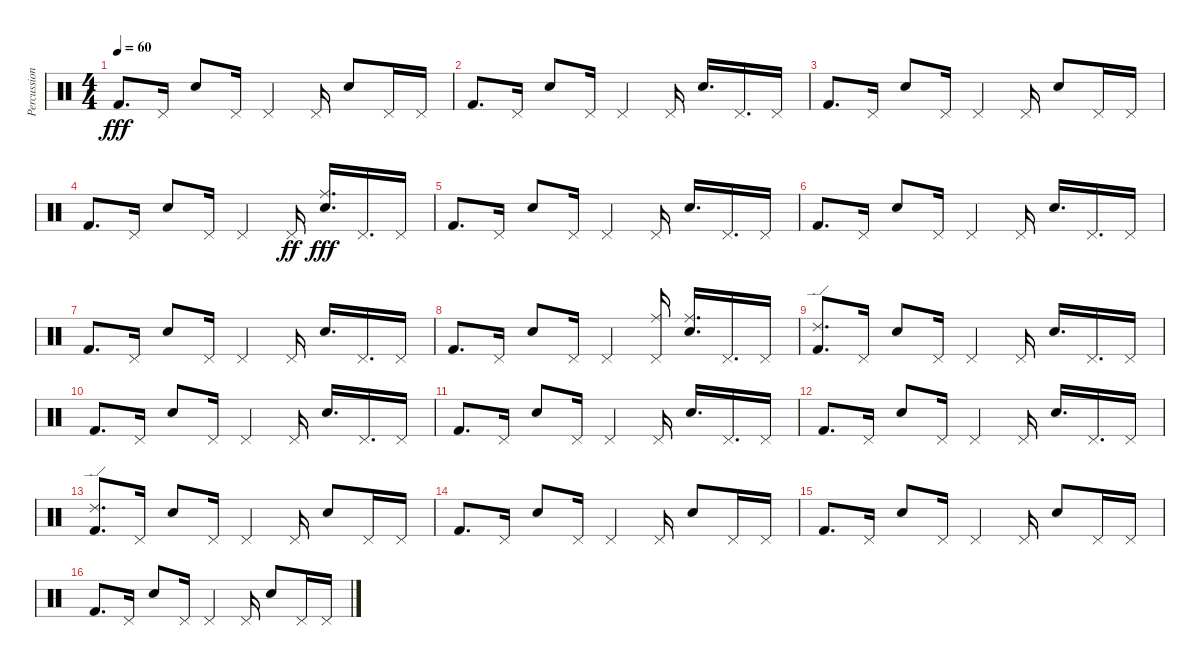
\track ("Percussion" "Percussion") {instrument percussion}
\staff {score}
\articulation defaults
\ts (4 4)
\tempo 60
\clef neutral
\ks c "Kick (hit) 2".8{d dy fff} "Pedal Hi-Hat (hit)".16 "Snare (hit) 2".8 "Pedal Hi-Hat (hit)".16 "Pedal Hi-Hat (hit)".4 "Pedal Hi-Hat (hit)".16 "Snare (hit) 2".8 "Pedal Hi-Hat (hit)".16 "Pedal Hi-Hat (hit)".16
|
"Kick (hit) 2".8{d} "Pedal Hi-Hat (hit)".16 "Snare (hit) 2".8 "Pedal Hi-Hat (hit)".16 "Pedal Hi-Hat (hit)".4 "Pedal Hi-Hat (hit)".16 "Snare (hit) 2".16{d} "Pedal Hi-Hat (hit)".16{d} "Pedal Hi-Hat (hit)".16 |
"Kick (hit) 2".8{d} "Pedal Hi-Hat (hit)".16 "Snare (hit) 2".8 "Pedal Hi-Hat (hit)".16 "Pedal Hi-Hat (hit)".4 "Pedal Hi-Hat (hit)".16 "Snare (hit) 2".8 "Pedal Hi-Hat (hit)".16 "Pedal Hi-Hat (hit)".16 |
"Kick (hit) 2".8{d} "Pedal Hi-Hat (hit)".16 "Snare (hit) 2".8 "Pedal Hi-Hat (hit)".16 "Pedal Hi-Hat (hit)".4 "Pedal Hi-Hat (hit)".16{dy ff} ("Ride (middle)" "Snare (hit) 2").16{d dy fff} "Pedal Hi-Hat (hit)".16{d} "Pedal Hi-Hat (hit)".16 |
"Kick (hit) 2".8{d} "Pedal Hi-Hat (hit)".16 "Snare (hit) 2".8 "Pedal Hi-Hat (hit)".16 "Pedal Hi-Hat (hit)".4 "Pedal Hi-Hat (hit)".16 "Snare (hit) 2".16{d} "Pedal Hi-Hat (hit)".16{d} "Pedal Hi-Hat (hit)".16 |
"Kick (hit) 2".8{d} "Pedal Hi-Hat (hit)".16 "Snare (hit) 2".8 "Pedal Hi-Hat (hit)".16 "Pedal Hi-Hat (hit)".4 "Pedal Hi-Hat (hit)".16 "Snare (hit) 2".16{d} "Pedal Hi-Hat (hit)".16{d} "Pedal Hi-Hat (hit)".16 |
"Kick (hit) 2".8{d} "Pedal Hi-Hat (hit)".16 "Snare (hit) 2".8 "Pedal Hi-Hat (hit)".16 "Pedal Hi-Hat (hit)".4 "Pedal Hi-Hat (hit)".16 "Snare (hit) 2".16{d} "Pedal Hi-Hat (hit)".16{d} "Pedal Hi-Hat (hit)".16 |
"Kick (hit) 2".8{d} "Pedal Hi-Hat (hit)".16 "Snare (hit) 2".8 "Pedal Hi-Hat (hit)".16 "Pedal Hi-Hat (hit)".4 ("Ride (middle)" "Pedal Hi-Hat (hit)").16 ("Ride (middle)" "Snare (hit) 2").16{d} "Pedal Hi-Hat (hit)".16{d} "Pedal Hi-Hat (hit)".16 |
("Ride (edge) 2" "Kick (hit) 2").8{d} "Pedal Hi-Hat (hit)".16 "Snare (hit) 2".8 "Pedal Hi-Hat (hit)".16 "Pedal Hi-Hat (hit)".4 "Pedal Hi-Hat (hit)".16 "Snare (hit) 2".16{d} "Pedal Hi-Hat (hit)".16{d} "Pedal Hi-Hat (hit)".16 |
"Kick (hit) 2".8{d} "Pedal Hi-Hat (hit)".16 "Snare (hit) 2".8 "Pedal Hi-Hat (hit)".16 "Pedal Hi-Hat (hit)".4 "Pedal Hi-Hat (hit)".16 "Snare (hit) 2".16{d} "Pedal Hi-Hat (hit)".16{d} "Pedal Hi-Hat (hit)".16 |
"Kick (hit) 2".8{d} "Pedal Hi-Hat (hit)".16 "Snare (hit) 2".8 "Pedal Hi-Hat (hit)".16 "Pedal Hi-Hat (hit)".4 "Pedal Hi-Hat (hit)".16 "Snare (hit) 2".16{d} "Pedal Hi-Hat (hit)".16{d} "Pedal Hi-Hat (hit)".16 |
"Kick (hit) 2".8{d} "Pedal Hi-Hat (hit)".16 "Snare (hit) 2".8 "Pedal Hi-Hat (hit)".16 "Pedal Hi-Hat (hit)".4 "Pedal Hi-Hat (hit)".16 "Snare (hit) 2".16{d} "Pedal Hi-Hat (hit)".16{d} "Pedal Hi-Hat (hit)".16 |
("Ride (edge) 2" "Kick (hit) 2").8{d} "Pedal Hi-Hat (hit)".16 "Snare (hit) 2".8 "Pedal Hi-Hat (hit)".16 "Pedal Hi-Hat (hit)".4 "Pedal Hi-Hat (hit)".16 "Snare (hit) 2".8 "Pedal Hi-Hat (hit)".16 "Pedal Hi-Hat (hit)".16 |
"Kick (hit) 2".8{d} "Pedal Hi-Hat (hit)".16 "Snare (hit) 2".8 "Pedal Hi-Hat (hit)".16 "Pedal Hi-Hat (hit)".4 "Pedal Hi-Hat (hit)".16 "Snare (hit) 2".8 "Pedal Hi-Hat (hit)".16 "Pedal Hi-Hat (hit)".16 |
"Kick (hit) 2".8{d} "Pedal Hi-Hat (hit)".16 "Snare (hit) 2".8 "Pedal Hi-Hat (hit)".16 "Pedal Hi-Hat (hit)".4 "Pedal Hi-Hat (hit)".16 "Snare (hit) 2".8 "Pedal Hi-Hat (hit)".16 "Pedal Hi-Hat (hit)".16 |
"Kick (hit) 2".8{d} "Pedal Hi-Hat (hit)".16 "Snare (hit) 2".8 "Pedal Hi-Hat (hit)".16 "Pedal Hi-Hat (hit)".4 "Pedal Hi-Hat (hit)".16 "Snare (hit) 2".8 "Pedal Hi-Hat (hit)".16 "Pedal Hi-Hat (hit)".16
